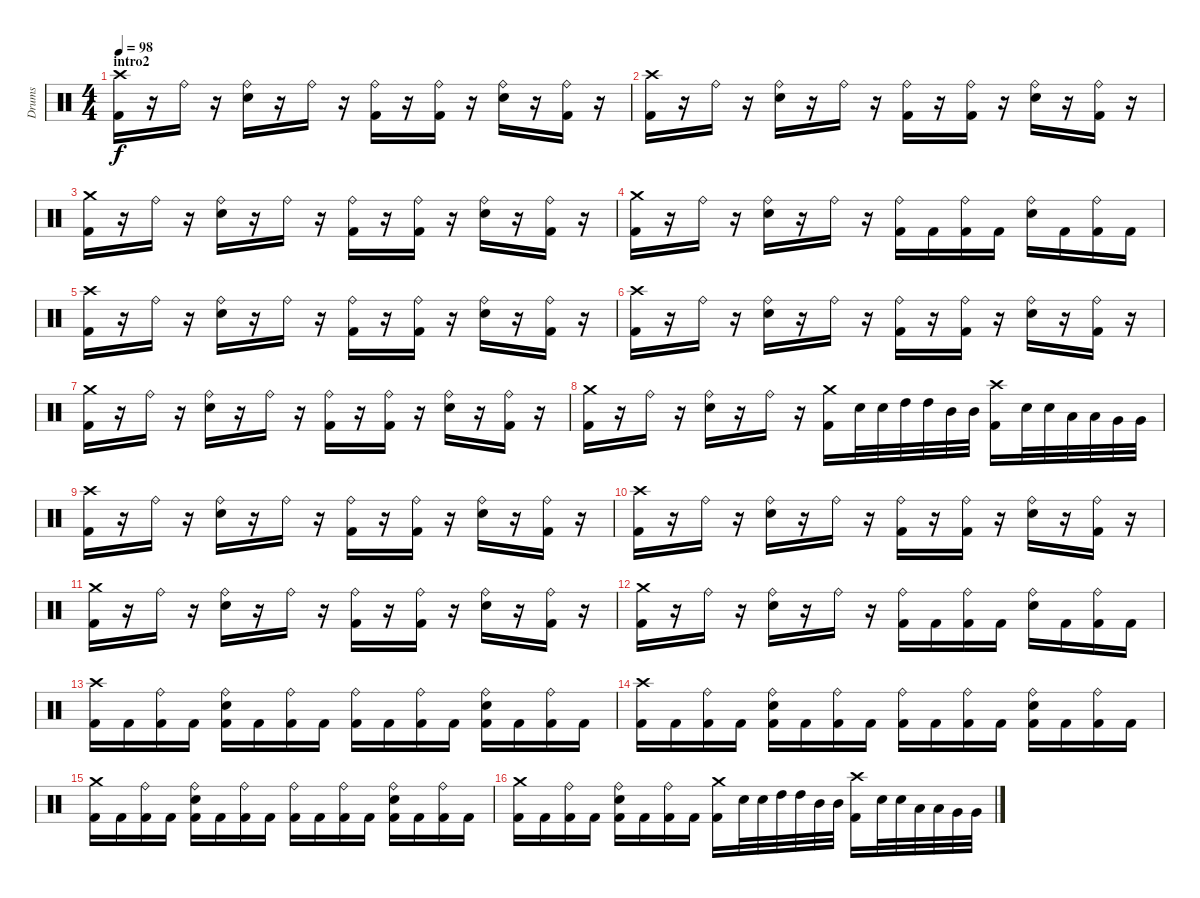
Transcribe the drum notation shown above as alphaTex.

\track ("Drums" "Drums") {instrument percussion}
\staff {score}
\articulation defaults
\ts (4 4)
\section ("" "intro2")
\tempo 98
\clef neutral
\ks c
("Crash high (hit)" "Kick (hit) 2").16{dy f} r.16 "Ride (bell)".16 r.16 ("Ride (bell)" "Electric Snare (hit)").16 r.16 "Ride (bell)".16 r.16 ("Ride (bell)" "Kick (hit) 2").16 r.16 ("Ride (bell)" "Kick (hit) 2").16 r.16 ("Ride (bell)" "Electric Snare (hit)").16 r.16 ("Ride (bell)" "Kick (hit) 2").16 r.16 |
("Crash high (hit)" "Kick (hit) 2").16 r.16 "Ride (bell)".16 r.16 ("Ride (bell)" "Electric Snare (hit)").16 r.16 "Ride (bell)".16 r.16 ("Ride (bell)" "Kick (hit) 2").16 r.16 ("Ride (bell)" "Kick (hit) 2").16 r.16 ("Ride (bell)" "Electric Snare (hit)").16 r.16 ("Ride (bell)" "Kick (hit) 2").16 r.16 |
("Crash medium (hit)" "Kick (hit) 2").16 r.16 "Ride (bell)".16 r.16 ("Ride (bell)" "Electric Snare (hit)").16 r.16 "Ride (bell)".16 r.16 ("Ride (bell)" "Kick (hit) 2").16 r.16 ("Ride (bell)" "Kick (hit) 2").16 r.16 ("Ride (bell)" "Electric Snare (hit)").16 r.16 ("Ride (bell)" "Kick (hit) 2").16 r.16 |
("Crash medium (hit)" "Kick (hit) 2").16 r.16 "Ride (bell)".16 r.16 ("Ride (bell)" "Electric Snare (hit)").16 r.16 "Ride (bell)".16 r.16 ("Ride (bell)" "Kick (hit) 2").16 "Kick (hit) 2".16 ("Ride (bell)" "Kick (hit) 2").16 "Kick (hit) 2".16 ("Ride (bell)" "Electric Snare (hit)").16 "Kick (hit) 2".16 ("Ride (bell)" "Kick (hit) 2").16 "Kick (hit) 2".16 |
("Crash high (hit)" "Kick (hit) 2").16 r.16 "Ride (bell)".16 r.16 ("Ride (bell)" "Electric Snare (hit)").16 r.16 "Ride (bell)".16 r.16 ("Ride (bell)" "Kick (hit) 2").16 r.16 ("Ride (bell)" "Kick (hit) 2").16 r.16 ("Ride (bell)" "Electric Snare (hit)").16 r.16 ("Ride (bell)" "Kick (hit) 2").16 r.16 |
("Crash high (hit)" "Kick (hit) 2").16 r.16 "Ride (bell)".16 r.16 ("Ride (bell)" "Electric Snare (hit)").16 r.16 "Ride (bell)".16 r.16 ("Ride (bell)" "Kick (hit) 2").16 r.16 ("Ride (bell)" "Kick (hit) 2").16 r.16 ("Ride (bell)" "Electric Snare (hit)").16 r.16 ("Ride (bell)" "Kick (hit) 2").16 r.16 |
("Crash medium (hit)" "Kick (hit) 2").16 r.16 "Ride (bell)".16 r.16 ("Ride (bell)" "Electric Snare (hit)").16 r.16 "Ride (bell)".16 r.16 ("Ride (bell)" "Kick (hit) 2").16 r.16 ("Ride (bell)" "Kick (hit) 2").16 r.16 ("Ride (bell)" "Electric Snare (hit)").16 r.16 ("Ride (bell)" "Kick (hit) 2").16 r.16 |
("Crash medium (hit)" "Kick (hit) 2").16 r.16 "Ride (bell)".16 r.16 ("Ride (bell)" "Electric Snare (hit)").16 r.16 "Ride (bell)".16 r.16 ("Crash medium (hit)" "Kick (hit) 2").16 "Electric Snare (hit)".32 "Electric Snare (hit)".32 "High Tom (hit)".32 "High Tom (hit)".32 "Mid Tom (hit)".32 "Mid Tom (hit)".32 ("Crash high (hit)" "Kick (hit) 2").16 "Electric Snare (hit)".32 "Electric Snare (hit)".32 "Low Tom (hit)".32 "Low Tom (hit)".32 "Very Low Tom (hit)".32 "Very Low Tom (hit)".32 |
("Crash high (hit)" "Kick (hit) 2").16 r.16 "Ride (bell)".16 r.16 ("Ride (bell)" "Electric Snare (hit)").16 r.16 "Ride (bell)".16 r.16 ("Ride (bell)" "Kick (hit) 2").16 r.16 ("Ride (bell)" "Kick (hit) 2").16 r.16 ("Ride (bell)" "Electric Snare (hit)").16 r.16 ("Ride (bell)" "Kick (hit) 2").16 r.16 |
("Crash high (hit)" "Kick (hit) 2").16 r.16 "Ride (bell)".16 r.16 ("Ride (bell)" "Electric Snare (hit)").16 r.16 "Ride (bell)".16 r.16 ("Ride (bell)" "Kick (hit) 2").16 r.16 ("Ride (bell)" "Kick (hit) 2").16 r.16 ("Ride (bell)" "Electric Snare (hit)").16 r.16 ("Ride (bell)" "Kick (hit) 2").16 r.16 |
("Crash medium (hit)" "Kick (hit) 2").16 r.16 "Ride (bell)".16 r.16 ("Ride (bell)" "Electric Snare (hit)").16 r.16 "Ride (bell)".16 r.16 ("Ride (bell)" "Kick (hit) 2").16 r.16 ("Ride (bell)" "Kick (hit) 2").16 r.16 ("Ride (bell)" "Electric Snare (hit)").16 r.16 ("Ride (bell)" "Kick (hit) 2").16 r.16 |
("Crash medium (hit)" "Kick (hit) 2").16 r.16 "Ride (bell)".16 r.16 ("Ride (bell)" "Electric Snare (hit)").16 r.16 "Ride (bell)".16 r.16 ("Ride (bell)" "Kick (hit) 2").16 "Kick (hit) 2".16 ("Ride (bell)" "Kick (hit) 2").16 "Kick (hit) 2".16 ("Ride (bell)" "Electric Snare (hit)").16 "Kick (hit) 2".16 ("Ride (bell)" "Kick (hit) 2").16 "Kick (hit) 2".16 |
("Crash high (hit)" "Kick (hit) 2").16 "Kick (hit) 2".16 ("Ride (bell)" "Kick (hit) 2").16 "Kick (hit) 2".16 ("Ride (bell)" "Electric Snare (hit)" "Kick (hit) 2").16 "Kick (hit) 2".16 ("Ride (bell)" "Kick (hit) 2").16 "Kick (hit) 2".16 ("Ride (bell)" "Kick (hit) 2").16 "Kick (hit) 2".16 ("Ride (bell)" "Kick (hit) 2").16 "Kick (hit) 2".16 ("Ride (bell)" "Electric Snare (hit)" "Kick (hit) 2").16 "Kick (hit) 2".16 ("Ride (bell)" "Kick (hit) 2").16 "Kick (hit) 2".16 |
("Crash high (hit)" "Kick (hit) 2").16 "Kick (hit) 2".16 ("Ride (bell)" "Kick (hit) 2").16 "Kick (hit) 2".16 ("Ride (bell)" "Electric Snare (hit)" "Kick (hit) 2").16 "Kick (hit) 2".16 ("Ride (bell)" "Kick (hit) 2").16 "Kick (hit) 2".16 ("Ride (bell)" "Kick (hit) 2").16 "Kick (hit) 2".16 ("Ride (bell)" "Kick (hit) 2").16 "Kick (hit) 2".16 ("Ride (bell)" "Electric Snare (hit)" "Kick (hit) 2").16 "Kick (hit) 2".16 ("Ride (bell)" "Kick (hit) 2").16 "Kick (hit) 2".16 |
("Crash medium (hit)" "Kick (hit) 2").16 "Kick (hit) 2".16 ("Ride (bell)" "Kick (hit) 2").16 "Kick (hit) 2".16 ("Ride (bell)" "Electric Snare (hit)" "Kick (hit) 2").16 "Kick (hit) 2".16 ("Ride (bell)" "Kick (hit) 2").16 "Kick (hit) 2".16 ("Ride (bell)" "Kick (hit) 2").16 "Kick (hit) 2".16 ("Ride (bell)" "Kick (hit) 2").16 "Kick (hit) 2".16 ("Ride (bell)" "Electric Snare (hit)" "Kick (hit) 2").16 "Kick (hit) 2".16 ("Ride (bell)" "Kick (hit) 2").16 "Kick (hit) 2".16 |
("Crash medium (hit)" "Kick (hit) 2").16 "Kick (hit) 2".16 ("Ride (bell)" "Kick (hit) 2").16 "Kick (hit) 2".16 ("Ride (bell)" "Electric Snare (hit)" "Kick (hit) 2").16 "Kick (hit) 2".16 ("Ride (bell)" "Kick (hit) 2").16 "Kick (hit) 2".16 ("Crash medium (hit)" "Kick (hit) 2").16 "Electric Snare (hit)".32 "Electric Snare (hit)".32 "High Tom (hit)".32 "High Tom (hit)".32 "Mid Tom (hit)".32 "Mid Tom (hit)".32 ("Crash high (hit)" "Kick (hit) 2").16 "Electric Snare (hit)".32 "Electric Snare (hit)".32 "Low Tom (hit)".32 "Low Tom (hit)".32 "Very Low Tom (hit)".32 "Very Low Tom (hit)".32
